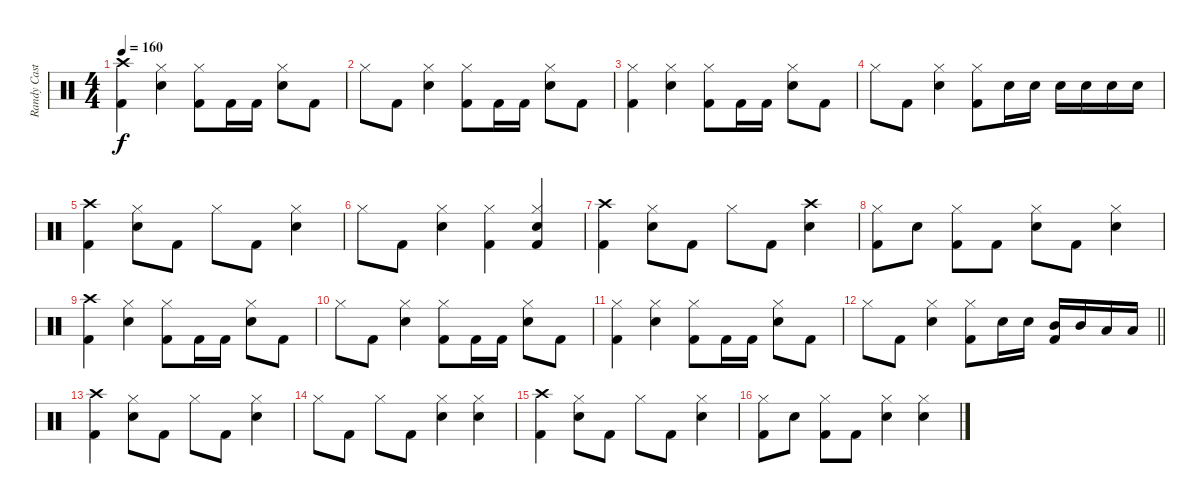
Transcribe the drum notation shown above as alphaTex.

\track ("Randy Castillo" "Randy Cast") {instrument percussion}
\staff {score}
\articulation defaults
\ts (4 4)
\tempo 160
\clef neutral
\ks aminor
("Kick (hit) 2" "Crash high (hit)").4{dy f} ("Hi-Hat (closed)" "Snare (hit) 2").4 ("Hi-Hat (closed)" "Kick (hit) 2").8 "Kick (hit) 2".16 "Kick (hit) 2".16 ("Hi-Hat (closed)" "Snare (hit) 2").8 "Kick (hit) 2".8 |
"Hi-Hat (closed)".8 "Kick (hit) 2".8 ("Hi-Hat (closed)" "Snare (hit) 2").4 ("Hi-Hat (closed)" "Kick (hit) 2").8 "Kick (hit) 2".16 "Kick (hit) 2".16 ("Hi-Hat (closed)" "Snare (hit) 2").8 "Kick (hit) 2".8 |
("Hi-Hat (closed)" "Kick (hit) 2").4 ("Hi-Hat (closed)" "Snare (hit) 2").4 ("Hi-Hat (closed)" "Kick (hit) 2").8 "Kick (hit) 2".16 "Kick (hit) 2".16 ("Hi-Hat (closed)" "Snare (hit) 2").8 "Kick (hit) 2".8 |
"Hi-Hat (closed)".8 "Kick (hit) 2".8 ("Hi-Hat (closed)" "Snare (hit) 2").4 ("Hi-Hat (closed)" "Kick (hit) 2").8 "Snare (hit) 2".16 "Snare (hit) 2".16 "Snare (hit) 2".16 "Snare (hit) 2".16 "Snare (hit) 2".16 "Snare (hit) 2".16 |
("Kick (hit) 2" "Crash high (hit)").4 ("Hi-Hat (closed)" "Snare (hit) 2").8 "Kick (hit) 2".8 "Hi-Hat (closed)".8 "Kick (hit) 2".8 ("Hi-Hat (closed)" "Snare (hit) 2").4 |
"Hi-Hat (closed)".8 "Kick (hit) 2".8 ("Hi-Hat (closed)" "Snare (hit) 2").4 ("Hi-Hat (closed)" "Kick (hit) 2").4 ("Hi-Hat (closed)" "Snare (hit) 2" "Kick (hit) 2").4 |
("Kick (hit) 2" "Crash high (hit)").4 ("Hi-Hat (closed)" "Snare (hit) 2").8 "Kick (hit) 2".8 "Hi-Hat (closed)".8 "Kick (hit) 2".8 ("Snare (hit) 2" "Crash high (hit)").4 |
("Hi-Hat (closed)" "Kick (hit) 2").8 "Snare (hit) 2".8 ("Hi-Hat (closed)" "Kick (hit) 2").8 "Kick (hit) 2".8 ("Hi-Hat (closed)" "Snare (hit) 2").8 "Kick (hit) 2".8 ("Hi-Hat (closed)" "Snare (hit) 2").4 |
("Kick (hit) 2" "Crash high (hit)").4 ("Hi-Hat (closed)" "Snare (hit) 2").4 ("Hi-Hat (closed)" "Kick (hit) 2").8 "Kick (hit) 2".16 "Kick (hit) 2".16 ("Hi-Hat (closed)" "Snare (hit) 2").8 "Kick (hit) 2".8 |
"Hi-Hat (closed)".8 "Kick (hit) 2".8 ("Hi-Hat (closed)" "Snare (hit) 2").4 ("Hi-Hat (closed)" "Kick (hit) 2").8 "Kick (hit) 2".16 "Kick (hit) 2".16 ("Hi-Hat (closed)" "Snare (hit) 2").8 "Kick (hit) 2".8 |
("Hi-Hat (closed)" "Kick (hit) 2").4 ("Hi-Hat (closed)" "Snare (hit) 2").4 ("Hi-Hat (closed)" "Kick (hit) 2").8 "Kick (hit) 2".16 "Kick (hit) 2".16 ("Hi-Hat (closed)" "Snare (hit) 2").8 "Kick (hit) 2".8 |
\barLineRight lightlight "Hi-Hat (closed)".8 "Kick (hit) 2".8
("Hi-Hat (closed)" "Snare (hit) 2").4 ("Hi-Hat (closed)" "Kick (hit) 2").8 "Snare (hit) 2".16 "Snare (hit) 2".16 ("Kick (hit) 2" "Mid Tom (hit)").16 "Mid Tom (hit)".16 "Low Tom (hit)".16 "Low Tom (hit)".16 |
("Kick (hit) 2" "Crash high (hit)").4 ("Hi-Hat (closed)" "Snare (hit) 2").8 "Kick (hit) 2".8 "Hi-Hat (closed)".8 "Kick (hit) 2".8 ("Hi-Hat (closed)" "Snare (hit) 2").4 |
"Hi-Hat (closed)".8 "Kick (hit) 2".8 "Hi-Hat (closed)".8 "Kick (hit) 2".8 ("Hi-Hat (closed)" "Snare (hit) 2").4 ("Hi-Hat (closed)" "Snare (hit) 2").4 |
("Kick (hit) 2" "Crash high (hit)").4 ("Hi-Hat (closed)" "Snare (hit) 2").8 "Kick (hit) 2".8 "Hi-Hat (closed)".8 "Kick (hit) 2".8 ("Hi-Hat (closed)" "Snare (hit) 2").4 |
("Hi-Hat (closed)" "Kick (hit) 2").8 "Snare (hit) 2".8 ("Hi-Hat (closed)" "Kick (hit) 2").8 "Kick (hit) 2".8 ("Hi-Hat (closed)" "Snare (hit) 2").4 ("Hi-Hat (closed)" "Snare (hit) 2").4
